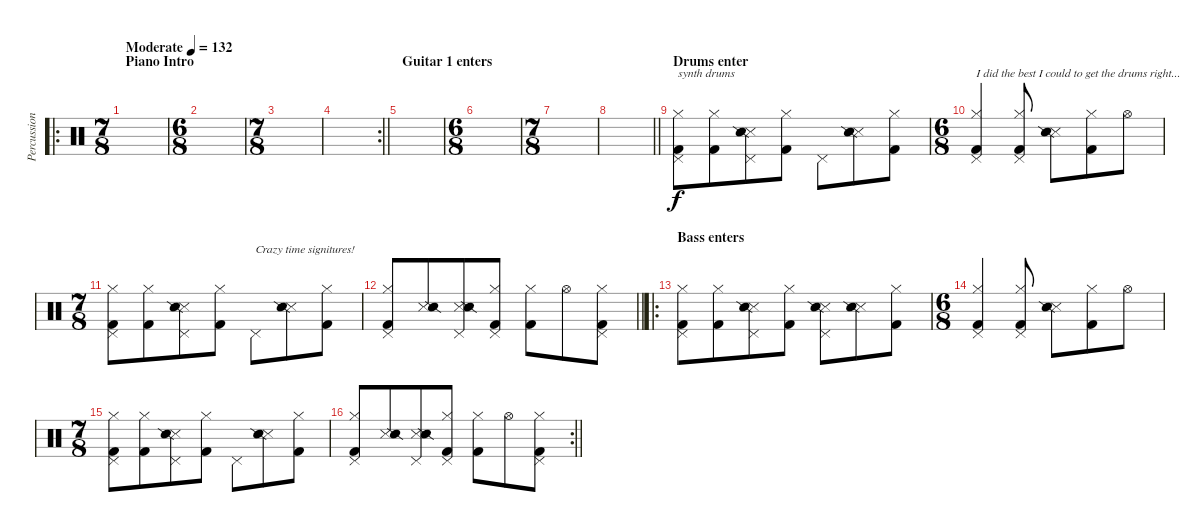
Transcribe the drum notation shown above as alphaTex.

\track ("Percussion" "Percussion") {instrument percussion}
\staff {score}
\articulation defaults
\ro
\ts (7 8)
\section ("" "Piano Intro")
\tempo (132 "Moderate")
\clef neutral
\ks c
|
\ts (6 8)
|
\ts (7 8)
|
\rc 2
\barLineRight lightlight
|
\section ("" "Guitar 1 enters")
|
\ts (6 8)
|
\ts (7 8)
|
\barLineRight lightlight
|
\section ("" "Drums enter")
("Pedal Hi-Hat (hit)" "Hi-Hat (closed)" "Kick (hit) 2").8{txt "synth drums"} ("Hi-Hat (closed)" "Kick (hit) 2").8 ("Pedal Hi-Hat (hit)" "Metronome (hit)" "Snare (side stick) 2").8 ("Hi-Hat (closed)" "Kick (hit) 2").8 "Pedal Hi-Hat (hit)".8 ("Metronome (hit)" "Snare (side stick) 2").8 ("Hi-Hat (closed)" "Kick (hit) 2").8 |
\ts (6 8)
("Pedal Hi-Hat (hit)" "Hi-Hat (closed)" "Kick (hit) 2").4{txt "I did the best I could to get the drums right..."} ("Pedal Hi-Hat (hit)" "Hi-Hat (closed)" "Kick (hit) 2").8 ("Metronome (hit)" "Snare (side stick) 2").8 ("Hi-Hat (closed)" "Kick (hit) 2").8 "Hi-Hat (open)".8 |
\ts (7 8)
("Pedal Hi-Hat (hit)" "Hi-Hat (closed)" "Kick (hit) 2").8 ("Hi-Hat (closed)" "Kick (hit) 2").8 ("Pedal Hi-Hat (hit)" "Metronome (hit)" "Snare (side stick) 2").8 ("Hi-Hat (closed)" "Kick (hit) 2").8 "Pedal Hi-Hat (hit)".8{txt "Crazy time signitures!"} ("Metronome (hit)" "Snare (side stick) 2").8 ("Hi-Hat (closed)" "Kick (hit) 2").8 |
\barLineRight lightlight
("Pedal Hi-Hat (hit)" "Hi-Hat (closed)" "Kick (hit) 2").8 ("Metronome (hit)" "Snare (side stick) 2").8 ("Pedal Hi-Hat (hit)" "Metronome (hit)" "Snare (side stick) 2").8 ("Pedal Hi-Hat (hit)" "Hi-Hat (closed)" "Kick (hit) 2").8 ("Hi-Hat (closed)" "Kick (hit) 2").8 "Hi-Hat (open)".8 ("Pedal Hi-Hat (hit)" "Hi-Hat (closed)" "Kick (hit) 2").8 |
\ro
\section ("" "Bass enters")
("Pedal Hi-Hat (hit)" "Hi-Hat (closed)" "Kick (hit) 2").8 ("Hi-Hat (closed)" "Kick (hit) 2").8 ("Pedal Hi-Hat (hit)" "Metronome (hit)" "Snare (side stick) 2").8 ("Hi-Hat (closed)" "Kick (hit) 2").8 ("Pedal Hi-Hat (hit)" "Metronome (hit)" "Snare (side stick) 2").8 ("Metronome (hit)" "Snare (side stick) 2").8 ("Hi-Hat (closed)" "Kick (hit) 2").8 |
\ts (6 8)
("Pedal Hi-Hat (hit)" "Hi-Hat (closed)" "Kick (hit) 2").4 ("Pedal Hi-Hat (hit)" "Hi-Hat (closed)" "Kick (hit) 2").8 ("Metronome (hit)" "Snare (side stick) 2").8 ("Hi-Hat (closed)" "Kick (hit) 2").8 "Hi-Hat (open)".8 |
\ts (7 8)
("Pedal Hi-Hat (hit)" "Hi-Hat (closed)" "Kick (hit) 2").8 ("Hi-Hat (closed)" "Kick (hit) 2").8 ("Pedal Hi-Hat (hit)" "Metronome (hit)" "Snare (side stick) 2").8 ("Hi-Hat (closed)" "Kick (hit) 2").8 "Pedal Hi-Hat (hit)".8 ("Metronome (hit)" "Snare (side stick) 2").8 ("Hi-Hat (closed)" "Kick (hit) 2").8 |
\rc 2
\barLineRight lightlight
("Pedal Hi-Hat (hit)" "Hi-Hat (closed)" "Kick (hit) 2").8 ("Metronome (hit)" "Snare (side stick) 2").8 ("Pedal Hi-Hat (hit)" "Metronome (hit)" "Snare (side stick) 2").8 ("Pedal Hi-Hat (hit)" "Hi-Hat (closed)" "Kick (hit) 2").8 ("Hi-Hat (closed)" "Kick (hit) 2").8 "Hi-Hat (open)".8 ("Pedal Hi-Hat (hit)" "Hi-Hat (closed)" "Kick (hit) 2").8
